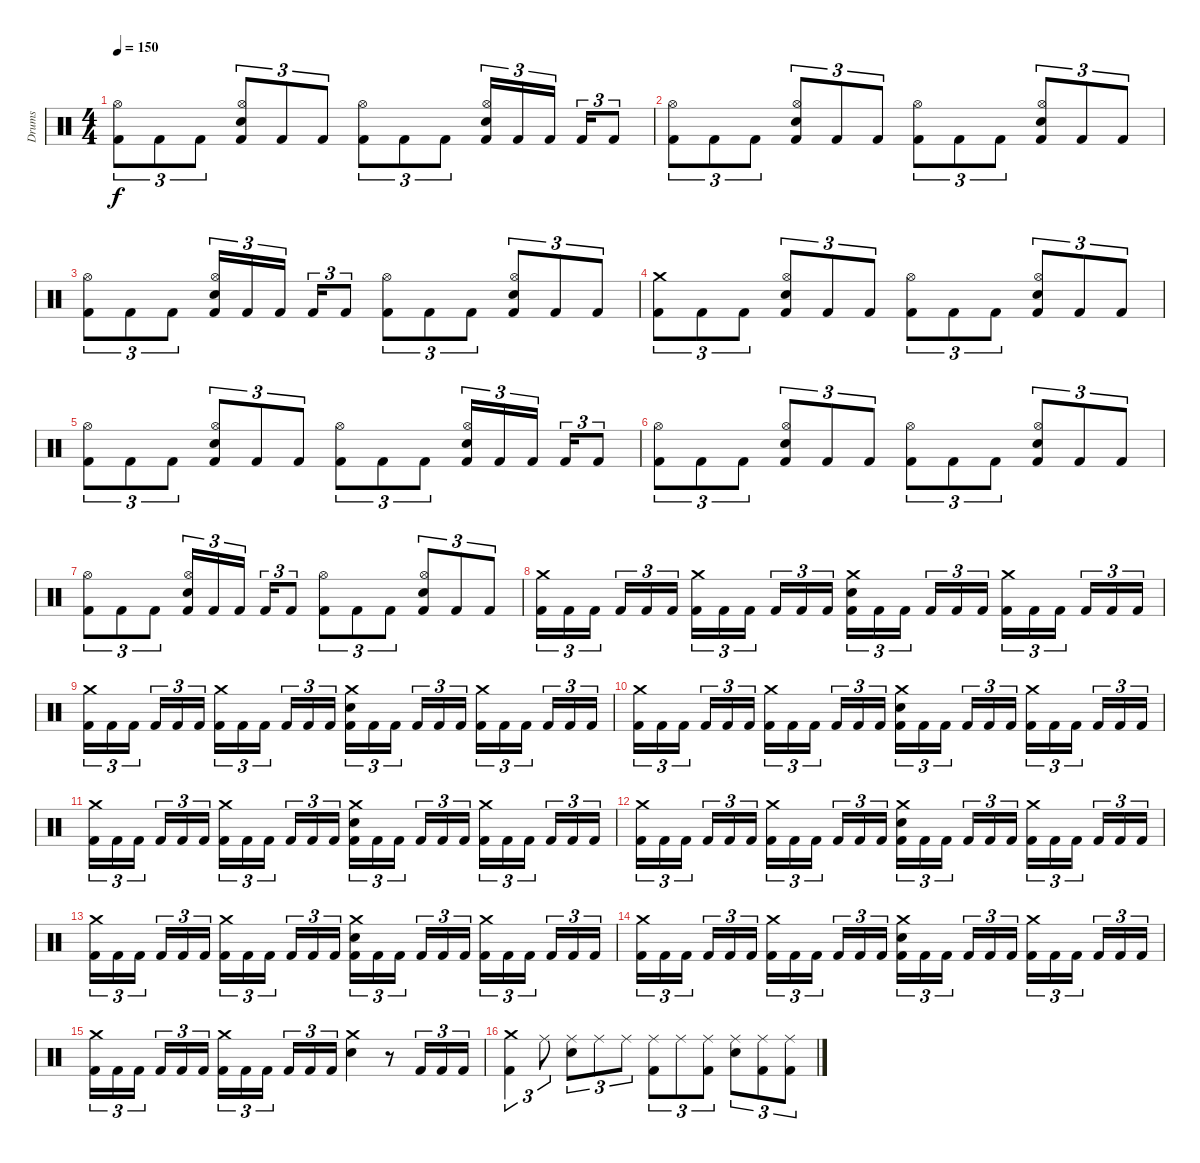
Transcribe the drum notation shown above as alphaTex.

\track ("Drums" "Drums") {instrument percussion}
\staff {score}
\articulation defaults
\ts (4 4)
\tempo 150
\clef neutral
\ks c
("Kick (hit) 2" "Hi-Hat (open)").8{tu (3 2) dy f} "Kick (hit) 2".8{tu (3 2)} "Kick (hit) 2".8{tu (3 2)} ("Kick (hit) 2" "Electric Snare (hit)" "Hi-Hat (open)").8{tu (3 2)} "Kick (hit) 2".8{tu (3 2)} "Kick (hit) 2".8{tu (3 2)} ("Kick (hit) 2" "Hi-Hat (open)").8{tu (3 2)} "Kick (hit) 2".8{tu (3 2)} "Kick (hit) 2".8{tu (3 2)} ("Kick (hit) 2" "Electric Snare (hit)" "Hi-Hat (open)").16{tu (3 2)} "Kick (hit) 2".16{tu (3 2)} "Kick (hit) 2".16{tu (3 2)} "Kick (hit) 2".16{tu (3 2)} "Kick (hit) 2".8{tu (3 2)} |
("Kick (hit) 2" "Hi-Hat (open)").8{tu (3 2)} "Kick (hit) 2".8{tu (3 2)} "Kick (hit) 2".8{tu (3 2)} ("Kick (hit) 2" "Electric Snare (hit)" "Hi-Hat (open)").8{tu (3 2)} "Kick (hit) 2".8{tu (3 2)} "Kick (hit) 2".8{tu (3 2)} ("Kick (hit) 2" "Hi-Hat (open)").8{tu (3 2)} "Kick (hit) 2".8{tu (3 2)} "Kick (hit) 2".8{tu (3 2)} ("Kick (hit) 2" "Electric Snare (hit)" "Hi-Hat (open)").8{tu (3 2)} "Kick (hit) 2".8{tu (3 2)} "Kick (hit) 2".8{tu (3 2)} |
("Kick (hit) 2" "Hi-Hat (open)").8{tu (3 2)} "Kick (hit) 2".8{tu (3 2)} "Kick (hit) 2".8{tu (3 2)} ("Kick (hit) 2" "Electric Snare (hit)" "Hi-Hat (open)").16{tu (3 2)} "Kick (hit) 2".16{tu (3 2)} "Kick (hit) 2".16{tu (3 2)} "Kick (hit) 2".16{tu (3 2)} "Kick (hit) 2".8{tu (3 2)} ("Kick (hit) 2" "Hi-Hat (open)").8{tu (3 2)} "Kick (hit) 2".8{tu (3 2)} "Kick (hit) 2".8{tu (3 2)} ("Kick (hit) 2" "Electric Snare (hit)" "Hi-Hat (open)").8{tu (3 2)} "Kick (hit) 2".8{tu (3 2)} "Kick (hit) 2".8{tu (3 2)} |
("Kick (hit) 2" "Crash medium (hit)").8{tu (3 2)} "Kick (hit) 2".8{tu (3 2)} "Kick (hit) 2".8{tu (3 2)} ("Kick (hit) 2" "Electric Snare (hit)" "Hi-Hat (open)").8{tu (3 2)} "Kick (hit) 2".8{tu (3 2)} "Kick (hit) 2".8{tu (3 2)} ("Kick (hit) 2" "Hi-Hat (open)").8{tu (3 2)} "Kick (hit) 2".8{tu (3 2)} "Kick (hit) 2".8{tu (3 2)} ("Kick (hit) 2" "Electric Snare (hit)" "Hi-Hat (open)").8{tu (3 2)} "Kick (hit) 2".8{tu (3 2)} "Kick (hit) 2".8{tu (3 2)} |
("Kick (hit) 2" "Hi-Hat (open)").8{tu (3 2)} "Kick (hit) 2".8{tu (3 2)} "Kick (hit) 2".8{tu (3 2)} ("Kick (hit) 2" "Electric Snare (hit)" "Hi-Hat (open)").8{tu (3 2)} "Kick (hit) 2".8{tu (3 2)} "Kick (hit) 2".8{tu (3 2)} ("Kick (hit) 2" "Hi-Hat (open)").8{tu (3 2)} "Kick (hit) 2".8{tu (3 2)} "Kick (hit) 2".8{tu (3 2)} ("Kick (hit) 2" "Electric Snare (hit)" "Hi-Hat (open)").16{tu (3 2)} "Kick (hit) 2".16{tu (3 2)} "Kick (hit) 2".16{tu (3 2)} "Kick (hit) 2".16{tu (3 2)} "Kick (hit) 2".8{tu (3 2)} |
("Kick (hit) 2" "Hi-Hat (open)").8{tu (3 2)} "Kick (hit) 2".8{tu (3 2)} "Kick (hit) 2".8{tu (3 2)} ("Kick (hit) 2" "Electric Snare (hit)" "Hi-Hat (open)").8{tu (3 2)} "Kick (hit) 2".8{tu (3 2)} "Kick (hit) 2".8{tu (3 2)} ("Kick (hit) 2" "Hi-Hat (open)").8{tu (3 2)} "Kick (hit) 2".8{tu (3 2)} "Kick (hit) 2".8{tu (3 2)} ("Kick (hit) 2" "Electric Snare (hit)" "Hi-Hat (open)").8{tu (3 2)} "Kick (hit) 2".8{tu (3 2)} "Kick (hit) 2".8{tu (3 2)} |
("Kick (hit) 2" "Hi-Hat (open)").8{tu (3 2)} "Kick (hit) 2".8{tu (3 2)} "Kick (hit) 2".8{tu (3 2)} ("Kick (hit) 2" "Electric Snare (hit)" "Hi-Hat (open)").16{tu (3 2)} "Kick (hit) 2".16{tu (3 2)} "Kick (hit) 2".16{tu (3 2)} "Kick (hit) 2".16{tu (3 2)} "Kick (hit) 2".8{tu (3 2)} ("Kick (hit) 2" "Hi-Hat (open)").8{tu (3 2)} "Kick (hit) 2".8{tu (3 2)} "Kick (hit) 2".8{tu (3 2)} ("Kick (hit) 2" "Electric Snare (hit)" "Hi-Hat (open)").8{tu (3 2)} "Kick (hit) 2".8{tu (3 2)} "Kick (hit) 2".8{tu (3 2)} |
("Kick (hit) 2" "Crash medium (hit)").16{tu (3 2)} "Kick (hit) 2".16{tu (3 2)} "Kick (hit) 2".16{tu (3 2)} "Kick (hit) 2".16{tu (3 2)} "Kick (hit) 2".16{tu (3 2)} "Kick (hit) 2".16{tu (3 2)} ("Kick (hit) 2" "Crash medium (hit)").16{tu (3 2)} "Kick (hit) 2".16{tu (3 2)} "Kick (hit) 2".16{tu (3 2)} "Kick (hit) 2".16{tu (3 2)} "Kick (hit) 2".16{tu (3 2)} "Kick (hit) 2".16{tu (3 2)} ("Kick (hit) 2" "Electric Snare (hit)" "Crash medium (hit)").16{tu (3 2)} "Kick (hit) 2".16{tu (3 2)} "Kick (hit) 2".16{tu (3 2)} "Kick (hit) 2".16{tu (3 2)} "Kick (hit) 2".16{tu (3 2)} "Kick (hit) 2".16{tu (3 2)} ("Kick (hit) 2" "Crash medium (hit)").16{tu (3 2)} "Kick (hit) 2".16{tu (3 2)} "Kick (hit) 2".16{tu (3 2)} "Kick (hit) 2".16{tu (3 2)} "Kick (hit) 2".16{tu (3 2)} "Kick (hit) 2".16{tu (3 2)} |
("Kick (hit) 2" "Crash medium (hit)").16{tu (3 2)} "Kick (hit) 2".16{tu (3 2)} "Kick (hit) 2".16{tu (3 2)} "Kick (hit) 2".16{tu (3 2)} "Kick (hit) 2".16{tu (3 2)} "Kick (hit) 2".16{tu (3 2)} ("Kick (hit) 2" "Crash medium (hit)").16{tu (3 2)} "Kick (hit) 2".16{tu (3 2)} "Kick (hit) 2".16{tu (3 2)} "Kick (hit) 2".16{tu (3 2)} "Kick (hit) 2".16{tu (3 2)} "Kick (hit) 2".16{tu (3 2)} ("Kick (hit) 2" "Electric Snare (hit)" "Crash medium (hit)").16{tu (3 2)} "Kick (hit) 2".16{tu (3 2)} "Kick (hit) 2".16{tu (3 2)} "Kick (hit) 2".16{tu (3 2)} "Kick (hit) 2".16{tu (3 2)} "Kick (hit) 2".16{tu (3 2)} ("Kick (hit) 2" "Crash medium (hit)").16{tu (3 2)} "Kick (hit) 2".16{tu (3 2)} "Kick (hit) 2".16{tu (3 2)} "Kick (hit) 2".16{tu (3 2)} "Kick (hit) 2".16{tu (3 2)} "Kick (hit) 2".16{tu (3 2)} |
("Kick (hit) 2" "Crash medium (hit)").16{tu (3 2)} "Kick (hit) 2".16{tu (3 2)} "Kick (hit) 2".16{tu (3 2)} "Kick (hit) 2".16{tu (3 2)} "Kick (hit) 2".16{tu (3 2)} "Kick (hit) 2".16{tu (3 2)} ("Kick (hit) 2" "Crash medium (hit)").16{tu (3 2)} "Kick (hit) 2".16{tu (3 2)} "Kick (hit) 2".16{tu (3 2)} "Kick (hit) 2".16{tu (3 2)} "Kick (hit) 2".16{tu (3 2)} "Kick (hit) 2".16{tu (3 2)} ("Kick (hit) 2" "Electric Snare (hit)" "Crash medium (hit)").16{tu (3 2)} "Kick (hit) 2".16{tu (3 2)} "Kick (hit) 2".16{tu (3 2)} "Kick (hit) 2".16{tu (3 2)} "Kick (hit) 2".16{tu (3 2)} "Kick (hit) 2".16{tu (3 2)} ("Kick (hit) 2" "Crash medium (hit)").16{tu (3 2)} "Kick (hit) 2".16{tu (3 2)} "Kick (hit) 2".16{tu (3 2)} "Kick (hit) 2".16{tu (3 2)} "Kick (hit) 2".16{tu (3 2)} "Kick (hit) 2".16{tu (3 2)} |
("Kick (hit) 2" "Crash medium (hit)").16{tu (3 2)} "Kick (hit) 2".16{tu (3 2)} "Kick (hit) 2".16{tu (3 2)} "Kick (hit) 2".16{tu (3 2)} "Kick (hit) 2".16{tu (3 2)} "Kick (hit) 2".16{tu (3 2)} ("Kick (hit) 2" "Crash medium (hit)").16{tu (3 2)} "Kick (hit) 2".16{tu (3 2)} "Kick (hit) 2".16{tu (3 2)} "Kick (hit) 2".16{tu (3 2)} "Kick (hit) 2".16{tu (3 2)} "Kick (hit) 2".16{tu (3 2)} ("Kick (hit) 2" "Electric Snare (hit)" "Crash medium (hit)").16{tu (3 2)} "Kick (hit) 2".16{tu (3 2)} "Kick (hit) 2".16{tu (3 2)} "Kick (hit) 2".16{tu (3 2)} "Kick (hit) 2".16{tu (3 2)} "Kick (hit) 2".16{tu (3 2)} ("Kick (hit) 2" "Crash medium (hit)").16{tu (3 2)} "Kick (hit) 2".16{tu (3 2)} "Kick (hit) 2".16{tu (3 2)} "Kick (hit) 2".16{tu (3 2)} "Kick (hit) 2".16{tu (3 2)} "Kick (hit) 2".16{tu (3 2)} |
("Kick (hit) 2" "Crash medium (hit)").16{tu (3 2)} "Kick (hit) 2".16{tu (3 2)} "Kick (hit) 2".16{tu (3 2)} "Kick (hit) 2".16{tu (3 2)} "Kick (hit) 2".16{tu (3 2)} "Kick (hit) 2".16{tu (3 2)} ("Kick (hit) 2" "Crash medium (hit)").16{tu (3 2)} "Kick (hit) 2".16{tu (3 2)} "Kick (hit) 2".16{tu (3 2)} "Kick (hit) 2".16{tu (3 2)} "Kick (hit) 2".16{tu (3 2)} "Kick (hit) 2".16{tu (3 2)} ("Kick (hit) 2" "Electric Snare (hit)" "Crash medium (hit)").16{tu (3 2)} "Kick (hit) 2".16{tu (3 2)} "Kick (hit) 2".16{tu (3 2)} "Kick (hit) 2".16{tu (3 2)} "Kick (hit) 2".16{tu (3 2)} "Kick (hit) 2".16{tu (3 2)} ("Kick (hit) 2" "Crash medium (hit)").16{tu (3 2)} "Kick (hit) 2".16{tu (3 2)} "Kick (hit) 2".16{tu (3 2)} "Kick (hit) 2".16{tu (3 2)} "Kick (hit) 2".16{tu (3 2)} "Kick (hit) 2".16{tu (3 2)} |
("Kick (hit) 2" "Crash medium (hit)").16{tu (3 2)} "Kick (hit) 2".16{tu (3 2)} "Kick (hit) 2".16{tu (3 2)} "Kick (hit) 2".16{tu (3 2)} "Kick (hit) 2".16{tu (3 2)} "Kick (hit) 2".16{tu (3 2)} ("Kick (hit) 2" "Crash medium (hit)").16{tu (3 2)} "Kick (hit) 2".16{tu (3 2)} "Kick (hit) 2".16{tu (3 2)} "Kick (hit) 2".16{tu (3 2)} "Kick (hit) 2".16{tu (3 2)} "Kick (hit) 2".16{tu (3 2)} ("Kick (hit) 2" "Electric Snare (hit)" "Crash medium (hit)").16{tu (3 2)} "Kick (hit) 2".16{tu (3 2)} "Kick (hit) 2".16{tu (3 2)} "Kick (hit) 2".16{tu (3 2)} "Kick (hit) 2".16{tu (3 2)} "Kick (hit) 2".16{tu (3 2)} ("Kick (hit) 2" "Crash medium (hit)").16{tu (3 2)} "Kick (hit) 2".16{tu (3 2)} "Kick (hit) 2".16{tu (3 2)} "Kick (hit) 2".16{tu (3 2)} "Kick (hit) 2".16{tu (3 2)} "Kick (hit) 2".16{tu (3 2)} |
("Kick (hit) 2" "Crash medium (hit)").16{tu (3 2)} "Kick (hit) 2".16{tu (3 2)} "Kick (hit) 2".16{tu (3 2)} "Kick (hit) 2".16{tu (3 2)} "Kick (hit) 2".16{tu (3 2)} "Kick (hit) 2".16{tu (3 2)} ("Kick (hit) 2" "Crash medium (hit)").16{tu (3 2)} "Kick (hit) 2".16{tu (3 2)} "Kick (hit) 2".16{tu (3 2)} "Kick (hit) 2".16{tu (3 2)} "Kick (hit) 2".16{tu (3 2)} "Kick (hit) 2".16{tu (3 2)} ("Kick (hit) 2" "Electric Snare (hit)" "Crash medium (hit)").16{tu (3 2)} "Kick (hit) 2".16{tu (3 2)} "Kick (hit) 2".16{tu (3 2)} "Kick (hit) 2".16{tu (3 2)} "Kick (hit) 2".16{tu (3 2)} "Kick (hit) 2".16{tu (3 2)} ("Kick (hit) 2" "Crash medium (hit)").16{tu (3 2)} "Kick (hit) 2".16{tu (3 2)} "Kick (hit) 2".16{tu (3 2)} "Kick (hit) 2".16{tu (3 2)} "Kick (hit) 2".16{tu (3 2)} "Kick (hit) 2".16{tu (3 2)} |
("Kick (hit) 2" "Crash medium (hit)").16{tu (3 2)} "Kick (hit) 2".16{tu (3 2)} "Kick (hit) 2".16{tu (3 2)} "Kick (hit) 2".16{tu (3 2)} "Kick (hit) 2".16{tu (3 2)} "Kick (hit) 2".16{tu (3 2)} ("Kick (hit) 2" "Crash medium (hit)").16{tu (3 2)} "Kick (hit) 2".16{tu (3 2)} "Kick (hit) 2".16{tu (3 2)} "Kick (hit) 2".16{tu (3 2)} "Kick (hit) 2".16{tu (3 2)} "Kick (hit) 2".16{tu (3 2)} ("Electric Snare (hit)" "Crash medium (hit)").4 r.8 "Kick (hit) 2".16{tu (3 2)} "Kick (hit) 2".16{tu (3 2)} "Kick (hit) 2".16{tu (3 2)} |
("Kick (hit) 2" "Crash medium (hit)").4{tu (3 2)} "Ride (middle)".8{tu (3 2)} ("Electric Snare (hit)" "Ride (middle)").8{tu (3 2)} "Ride (middle)".8{tu (3 2)} "Ride (middle)".8{tu (3 2)} ("Kick (hit) 2" "Ride (middle)").8{tu (3 2)} "Ride (middle)".8{tu (3 2)} ("Kick (hit) 2" "Ride (middle)").8{tu (3 2)} ("Electric Snare (hit)" "Ride (middle)").8{tu (3 2)} ("Kick (hit) 2" "Ride (middle)").8{tu (3 2)} ("Kick (hit) 2" "Ride (middle)").8{tu (3 2)}
